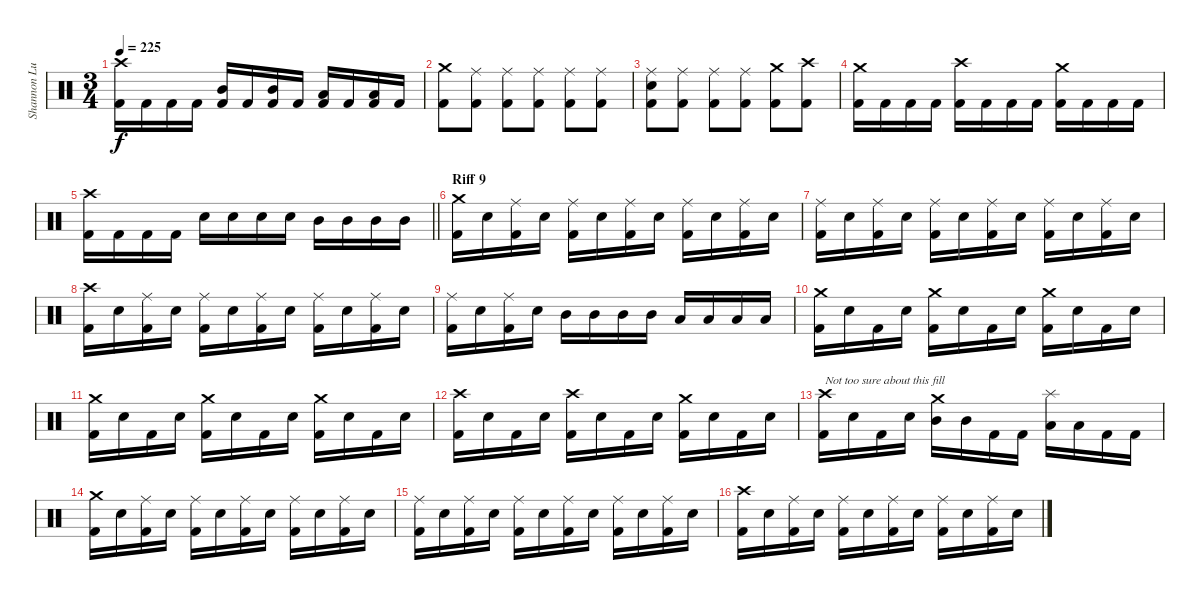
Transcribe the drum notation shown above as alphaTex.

\track ("Shannon Lucas" "Shannon Lu") {instrument percussion}
\staff {score}
\articulation defaults
\ts (3 4)
\tempo 225
\clef neutral
\ks c
("Crash high (hit)" "Kick (hit) 2").16{dy f} "Kick (hit) 2".16 "Kick (hit) 2".16 "Kick (hit) 2".16 ("Mid Tom (hit)" "Kick (hit) 2").16 "Kick (hit) 2".16 ("Mid Tom (hit)" "Kick (hit) 2").16 "Kick (hit) 2".16 ("Low Tom (hit)" "Kick (hit) 2").16 "Kick (hit) 2".16 ("Low Tom (hit)" "Kick (hit) 2").16 "Kick (hit) 2".16 |
("Crash medium (hit)" "Kick (hit) 2").8 ("Ride (middle)" "Kick (hit) 2").8 ("Ride (middle)" "Kick (hit) 2").8 ("Ride (middle)" "Kick (hit) 2").8 ("Ride (middle)" "Kick (hit) 2").8 ("Ride (middle)" "Kick (hit) 2").8 |
("Ride (middle)" "Electric Snare (hit)" "Kick (hit) 2").8 ("Ride (middle)" "Kick (hit) 2").8 ("Ride (middle)" "Kick (hit) 2").8 ("Ride (middle)" "Kick (hit) 2").8 ("Crash medium (hit)" "Kick (hit) 2").8 ("Crash high (hit)" "Kick (hit) 2").8 |
("Crash medium (hit)" "Kick (hit) 2").16 "Kick (hit) 2".16 "Kick (hit) 2".16 "Kick (hit) 2".16 ("Crash high (hit)" "Kick (hit) 2").16 "Kick (hit) 2".16 "Kick (hit) 2".16 "Kick (hit) 2".16 ("Crash medium (hit)" "Kick (hit) 2").16 "Kick (hit) 2".16 "Kick (hit) 2".16 "Kick (hit) 2".16 |
\barLineRight lightlight
("Crash high (hit)" "Kick (hit) 2").16 "Kick (hit) 2".16 "Kick (hit) 2".16 "Kick (hit) 2".16 "Electric Snare (hit)".16 "Electric Snare (hit)".16 "Electric Snare (hit)".16 "Electric Snare (hit)".16 "Mid Tom (hit)".16 "Mid Tom (hit)".16 "Mid Tom (hit)".16 "Mid Tom (hit)".16 |
\section ("" "Riff 9")
("Crash medium (hit)" "Kick (hit) 2").16 "Electric Snare (hit)".16 ("Ride (middle)" "Kick (hit) 2").16 "Electric Snare (hit)".16 ("Ride (middle)" "Kick (hit) 2").16 "Electric Snare (hit)".16 ("Ride (middle)" "Kick (hit) 2").16 "Electric Snare (hit)".16 ("Ride (middle)" "Kick (hit) 2").16 "Electric Snare (hit)".16 ("Ride (middle)" "Kick (hit) 2").16 "Electric Snare (hit)".16 |
("Ride (middle)" "Kick (hit) 2").16 "Electric Snare (hit)".16 ("Ride (middle)" "Kick (hit) 2").16 "Electric Snare (hit)".16 ("Ride (middle)" "Kick (hit) 2").16 "Electric Snare (hit)".16 ("Ride (middle)" "Kick (hit) 2").16 "Electric Snare (hit)".16 ("Ride (middle)" "Kick (hit) 2").16 "Electric Snare (hit)".16 ("Ride (middle)" "Kick (hit) 2").16 "Electric Snare (hit)".16 |
("Crash high (hit)" "Kick (hit) 2").16 "Electric Snare (hit)".16 ("Ride (middle)" "Kick (hit) 2").16 "Electric Snare (hit)".16 ("Ride (middle)" "Kick (hit) 2").16 "Electric Snare (hit)".16 ("Ride (middle)" "Kick (hit) 2").16 "Electric Snare (hit)".16 ("Ride (middle)" "Kick (hit) 2").16 "Electric Snare (hit)".16 ("Ride (middle)" "Kick (hit) 2").16 "Electric Snare (hit)".16 |
("Ride (middle)" "Kick (hit) 2").16 "Electric Snare (hit)".16 ("Ride (middle)" "Kick (hit) 2").16 "Electric Snare (hit)".16 "Mid Tom (hit)".16 "Mid Tom (hit)".16 "Mid Tom (hit)".16 "Mid Tom (hit)".16 "Low Tom (hit)".16 "Low Tom (hit)".16 "Low Tom (hit)".16 "Low Tom (hit)".16 |
("Crash medium (hit)" "Kick (hit) 2").16 "Electric Snare (hit)".16 "Kick (hit) 2".16 "Electric Snare (hit)".16 ("Crash medium (hit)" "Kick (hit) 2").16 "Electric Snare (hit)".16 "Kick (hit) 2".16 "Electric Snare (hit)".16 ("Crash medium (hit)" "Kick (hit) 2").16 "Electric Snare (hit)".16 "Kick (hit) 2".16 "Electric Snare (hit)".16 |
("Crash medium (hit)" "Kick (hit) 2").16 "Electric Snare (hit)".16 "Kick (hit) 2".16 "Electric Snare (hit)".16 ("Crash medium (hit)" "Kick (hit) 2").16 "Electric Snare (hit)".16 "Kick (hit) 2".16 "Electric Snare (hit)".16 ("Crash medium (hit)" "Kick (hit) 2").16 "Electric Snare (hit)".16 "Kick (hit) 2".16 "Electric Snare (hit)".16 |
("Crash high (hit)" "Kick (hit) 2").16 "Electric Snare (hit)".16 "Kick (hit) 2".16 "Electric Snare (hit)".16 ("Crash high (hit)" "Kick (hit) 2").16 "Electric Snare (hit)".16 "Kick (hit) 2".16 "Electric Snare (hit)".16 ("Crash medium (hit)" "Kick (hit) 2").16 "Electric Snare (hit)".16 "Kick (hit) 2".16 "Electric Snare (hit)".16 |
("Crash high (hit)" "Kick (hit) 2").16{txt "Not too sure about this fill"} "Electric Snare (hit)".16 "Kick (hit) 2".16 "Electric Snare (hit)".16 ("Crash medium (hit)" "Mid Tom (hit)").16 "Mid Tom (hit)".16 "Kick (hit) 2".16 "Kick (hit) 2".16 ("Splash (hit)" "Low Tom (hit)").16 "Low Tom (hit)".16 "Kick (hit) 2".16 "Kick (hit) 2".16 |
("Crash medium (hit)" "Kick (hit) 2").16 "Electric Snare (hit)".16 ("Ride (middle)" "Kick (hit) 2").16 "Electric Snare (hit)".16 ("Ride (middle)" "Kick (hit) 2").16 "Electric Snare (hit)".16 ("Ride (middle)" "Kick (hit) 2").16 "Electric Snare (hit)".16 ("Ride (middle)" "Kick (hit) 2").16 "Electric Snare (hit)".16 ("Ride (middle)" "Kick (hit) 2").16 "Electric Snare (hit)".16 |
("Ride (middle)" "Kick (hit) 2").16 "Electric Snare (hit)".16 ("Ride (middle)" "Kick (hit) 2").16 "Electric Snare (hit)".16 ("Ride (middle)" "Kick (hit) 2").16 "Electric Snare (hit)".16 ("Ride (middle)" "Kick (hit) 2").16 "Electric Snare (hit)".16 ("Ride (middle)" "Kick (hit) 2").16 "Electric Snare (hit)".16 ("Ride (middle)" "Kick (hit) 2").16 "Electric Snare (hit)".16 |
("Crash high (hit)" "Kick (hit) 2").16 "Electric Snare (hit)".16 ("Ride (middle)" "Kick (hit) 2").16 "Electric Snare (hit)".16 ("Ride (middle)" "Kick (hit) 2").16 "Electric Snare (hit)".16 ("Ride (middle)" "Kick (hit) 2").16 "Electric Snare (hit)".16 ("Ride (middle)" "Kick (hit) 2").16 "Electric Snare (hit)".16 ("Ride (middle)" "Kick (hit) 2").16 "Electric Snare (hit)".16
